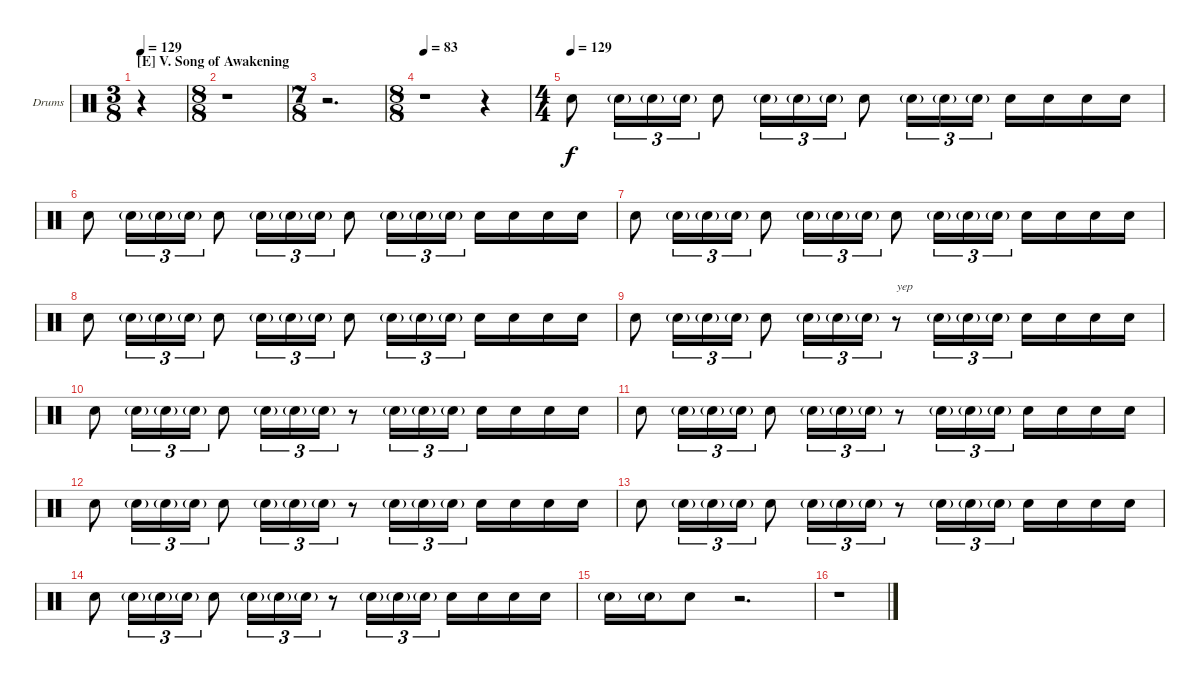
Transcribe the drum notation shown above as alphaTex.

\defaultSystemsLayout 4
\bracketExtendMode groupsimilarinstruments
\firstSystemTrackNameOrientation horizontal
\otherSystemsTrackNameOrientation horizontal
\track ("Drumkit" "Drums") {instrument percussion}
\staff {score}
\articulation defaults
\ts (3 8)
\section ("E" "V. Song of Awakening")
\tempo 129
\clef neutral
\ks c
r.4{dy f} |
\ts (8 8)
r.1 |
\ts (7 8)
r.2{d} |
\ts (8 8)
\tempo 83
r.1 r.4 |
\ts (4 4)
\tempo (129)
"Snare (hit) 2".8 "Snare (hit) 2"{g}.16{tu (3 2)} "Snare (hit) 2"{g}.16{tu (3 2)} "Snare (hit) 2"{g}.16{tu (3 2)} "Snare (hit) 2".8 "Snare (hit) 2"{g}.16{tu (3 2)} "Snare (hit) 2"{g}.16{tu (3 2)} "Snare (hit) 2"{g}.16{tu (3 2)} "Snare (hit) 2".8 "Snare (hit) 2"{g}.16{tu (3 2)} "Snare (hit) 2"{g}.16{tu (3 2)} "Snare (hit) 2"{g}.16{tu (3 2)} "Snare (hit) 2".16 "Snare (hit) 2".16 "Snare (hit) 2".16 "Snare (hit) 2".16 |
"Snare (hit) 2".8 "Snare (hit) 2"{g}.16{tu (3 2)} "Snare (hit) 2"{g}.16{tu (3 2)} "Snare (hit) 2"{g}.16{tu (3 2)} "Snare (hit) 2".8 "Snare (hit) 2"{g}.16{tu (3 2)} "Snare (hit) 2"{g}.16{tu (3 2)} "Snare (hit) 2"{g}.16{tu (3 2)} "Snare (hit) 2".8 "Snare (hit) 2"{g}.16{tu (3 2)} "Snare (hit) 2"{g}.16{tu (3 2)} "Snare (hit) 2"{g}.16{tu (3 2)} "Snare (hit) 2".16 "Snare (hit) 2".16 "Snare (hit) 2".16 "Snare (hit) 2".16 |
"Snare (hit) 2".8 "Snare (hit) 2"{g}.16{tu (3 2)} "Snare (hit) 2"{g}.16{tu (3 2)} "Snare (hit) 2"{g}.16{tu (3 2)} "Snare (hit) 2".8 "Snare (hit) 2"{g}.16{tu (3 2)} "Snare (hit) 2"{g}.16{tu (3 2)} "Snare (hit) 2"{g}.16{tu (3 2)} "Snare (hit) 2".8 "Snare (hit) 2"{g}.16{tu (3 2)} "Snare (hit) 2"{g}.16{tu (3 2)} "Snare (hit) 2"{g}.16{tu (3 2)} "Snare (hit) 2".16 "Snare (hit) 2".16 "Snare (hit) 2".16 "Snare (hit) 2".16 |
"Snare (hit) 2".8 "Snare (hit) 2"{g}.16{tu (3 2)} "Snare (hit) 2"{g}.16{tu (3 2)} "Snare (hit) 2"{g}.16{tu (3 2)} "Snare (hit) 2".8 "Snare (hit) 2"{g}.16{tu (3 2)} "Snare (hit) 2"{g}.16{tu (3 2)} "Snare (hit) 2"{g}.16{tu (3 2)} "Snare (hit) 2".8 "Snare (hit) 2"{g}.16{tu (3 2)} "Snare (hit) 2"{g}.16{tu (3 2)} "Snare (hit) 2"{g}.16{tu (3 2)} "Snare (hit) 2".16 "Snare (hit) 2".16 "Snare (hit) 2".16 "Snare (hit) 2".16 |
"Snare (hit) 2".8 "Snare (hit) 2"{g}.16{tu (3 2)} "Snare (hit) 2"{g}.16{tu (3 2)} "Snare (hit) 2"{g}.16{tu (3 2)} "Snare (hit) 2".8 "Snare (hit) 2"{g}.16{tu (3 2)} "Snare (hit) 2"{g}.16{tu (3 2)} "Snare (hit) 2"{g}.16{tu (3 2)} r.8{txt "yep"} "Snare (hit) 2"{g}.16{tu (3 2)} "Snare (hit) 2"{g}.16{tu (3 2)} "Snare (hit) 2"{g}.16{tu (3 2)} "Snare (hit) 2".16 "Snare (hit) 2".16 "Snare (hit) 2".16 "Snare (hit) 2".16 |
"Snare (hit) 2".8 "Snare (hit) 2"{g}.16{tu (3 2)} "Snare (hit) 2"{g}.16{tu (3 2)} "Snare (hit) 2"{g}.16{tu (3 2)} "Snare (hit) 2".8 "Snare (hit) 2"{g}.16{tu (3 2)} "Snare (hit) 2"{g}.16{tu (3 2)} "Snare (hit) 2"{g}.16{tu (3 2)} r.8 "Snare (hit) 2"{g}.16{tu (3 2)} "Snare (hit) 2"{g}.16{tu (3 2)} "Snare (hit) 2"{g}.16{tu (3 2)} "Snare (hit) 2".16 "Snare (hit) 2".16 "Snare (hit) 2".16 "Snare (hit) 2".16 |
"Snare (hit) 2".8 "Snare (hit) 2"{g}.16{tu (3 2)} "Snare (hit) 2"{g}.16{tu (3 2)} "Snare (hit) 2"{g}.16{tu (3 2)} "Snare (hit) 2".8 "Snare (hit) 2"{g}.16{tu (3 2)} "Snare (hit) 2"{g}.16{tu (3 2)} "Snare (hit) 2"{g}.16{tu (3 2)} r.8 "Snare (hit) 2"{g}.16{tu (3 2)} "Snare (hit) 2"{g}.16{tu (3 2)} "Snare (hit) 2"{g}.16{tu (3 2)} "Snare (hit) 2".16 "Snare (hit) 2".16 "Snare (hit) 2".16 "Snare (hit) 2".16 |
"Snare (hit) 2".8 "Snare (hit) 2"{g}.16{tu (3 2)} "Snare (hit) 2"{g}.16{tu (3 2)} "Snare (hit) 2"{g}.16{tu (3 2)} "Snare (hit) 2".8 "Snare (hit) 2"{g}.16{tu (3 2)} "Snare (hit) 2"{g}.16{tu (3 2)} "Snare (hit) 2"{g}.16{tu (3 2)} r.8 "Snare (hit) 2"{g}.16{tu (3 2)} "Snare (hit) 2"{g}.16{tu (3 2)} "Snare (hit) 2"{g}.16{tu (3 2)} "Snare (hit) 2".16 "Snare (hit) 2".16 "Snare (hit) 2".16 "Snare (hit) 2".16 |
"Snare (hit) 2".8 "Snare (hit) 2"{g}.16{tu (3 2)} "Snare (hit) 2"{g}.16{tu (3 2)} "Snare (hit) 2"{g}.16{tu (3 2)} "Snare (hit) 2".8 "Snare (hit) 2"{g}.16{tu (3 2)} "Snare (hit) 2"{g}.16{tu (3 2)} "Snare (hit) 2"{g}.16{tu (3 2)} r.8 "Snare (hit) 2"{g}.16{tu (3 2)} "Snare (hit) 2"{g}.16{tu (3 2)} "Snare (hit) 2"{g}.16{tu (3 2)} "Snare (hit) 2".16 "Snare (hit) 2".16 "Snare (hit) 2".16 "Snare (hit) 2".16 |
"Snare (hit) 2".8 "Snare (hit) 2"{g}.16{tu (3 2)} "Snare (hit) 2"{g}.16{tu (3 2)} "Snare (hit) 2"{g}.16{tu (3 2)} "Snare (hit) 2".8 "Snare (hit) 2"{g}.16{tu (3 2)} "Snare (hit) 2"{g}.16{tu (3 2)} "Snare (hit) 2"{g}.16{tu (3 2)} r.8 "Snare (hit) 2"{g}.16{tu (3 2)} "Snare (hit) 2"{g}.16{tu (3 2)} "Snare (hit) 2"{g}.16{tu (3 2)} "Snare (hit) 2".16 "Snare (hit) 2".16 "Snare (hit) 2".16 "Snare (hit) 2".16 |
"Snare (hit) 2"{g}.16 "Snare (hit) 2"{g}.16 "Snare (hit) 2".8 r.2{d} |
r.1
